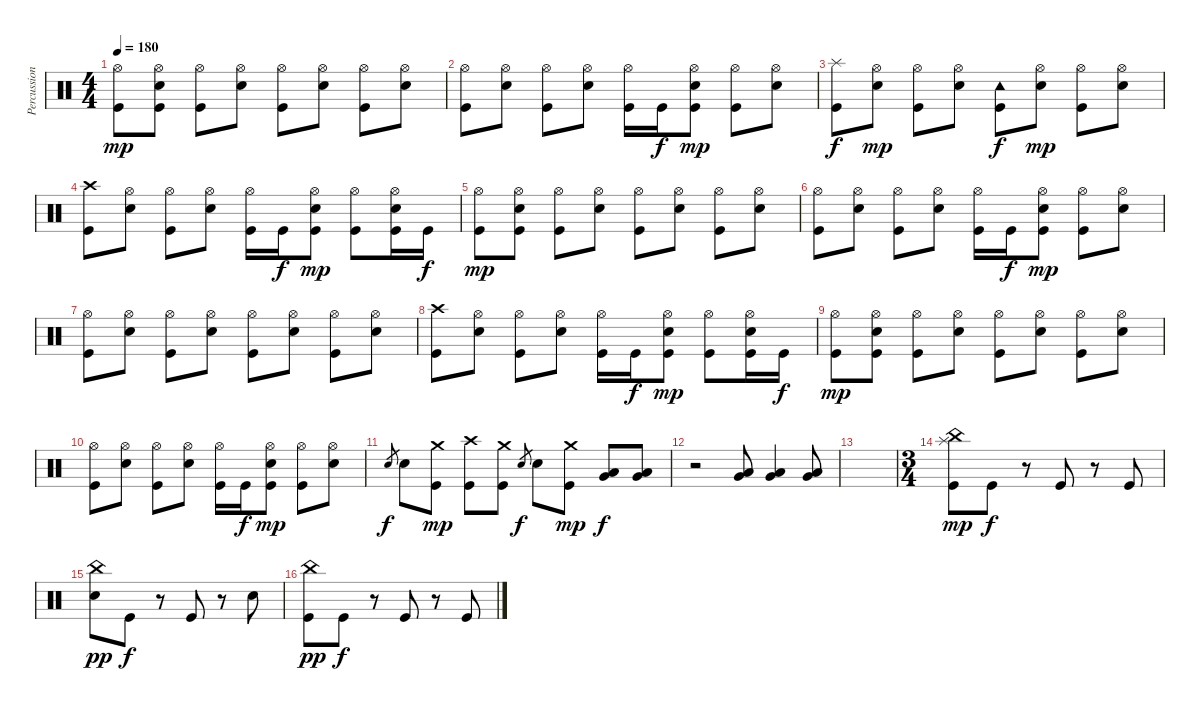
\track ("Percussion" "Percussion") {instrument percussion}
\staff {score}
\articulation defaults
\ts (4 4)
\tempo 180
\clef neutral
\ks c
("Hi-Hat (open)" "Kick (hit)").8{dy mp} ("Hi-Hat (open)" "Electric Snare (hit)" "Kick (hit)").8 ("Hi-Hat (open)" "Kick (hit)").8 ("Hi-Hat (open)" "Electric Snare (hit)").8 ("Hi-Hat (open)" "Kick (hit)").8 ("Hi-Hat (open)" "Electric Snare (hit)").8 ("Hi-Hat (open)" "Kick (hit)").8 ("Hi-Hat (open)" "Electric Snare (hit)").8 |
("Hi-Hat (open)" "Kick (hit)").8 ("Hi-Hat (open)" "Electric Snare (hit)").8 ("Hi-Hat (open)" "Kick (hit)").8 ("Hi-Hat (open)" "Electric Snare (hit)").8 ("Hi-Hat (open)" "Kick (hit)").16 "Kick (hit)".16{dy f} ("Hi-Hat (open)" "Electric Snare (hit)" "Kick (hit)").8{dy mp} ("Hi-Hat (open)" "Kick (hit)").8 ("Hi-Hat (open)" "Electric Snare (hit)").8 |
("Splash (hit)" "Kick (hit)").8{dy f} ("Hi-Hat (open)" "Electric Snare (hit)").8{dy mp} ("Hi-Hat (open)" "Kick (hit)").8 ("Hi-Hat (open)" "Electric Snare (hit)").8 ("Tambourine (hit)" "Kick (hit)").8{dy f} ("Hi-Hat (open)" "Electric Snare (hit)").8{dy mp} ("Hi-Hat (open)" "Kick (hit)").8 ("Hi-Hat (open)" "Electric Snare (hit)").8 |
("Crash high (hit)" "Kick (hit)").8 ("Hi-Hat (open)" "Electric Snare (hit)").8 ("Hi-Hat (open)" "Kick (hit)").8 ("Hi-Hat (open)" "Electric Snare (hit)").8 ("Hi-Hat (open)" "Kick (hit)").16 "Kick (hit)".16{dy f} ("Hi-Hat (open)" "Electric Snare (hit)" "Kick (hit)").8{dy mp} ("Hi-Hat (open)" "Kick (hit)").8 ("Hi-Hat (open)" "Electric Snare (hit)" "Kick (hit)").16 "Kick (hit)".16{dy f} |
("Hi-Hat (open)" "Kick (hit)").8{dy mp} ("Hi-Hat (open)" "Electric Snare (hit)" "Kick (hit)").8 ("Hi-Hat (open)" "Kick (hit)").8 ("Hi-Hat (open)" "Electric Snare (hit)").8 ("Hi-Hat (open)" "Kick (hit)").8 ("Hi-Hat (open)" "Electric Snare (hit)").8 ("Hi-Hat (open)" "Kick (hit)").8 ("Hi-Hat (open)" "Electric Snare (hit)").8 |
("Hi-Hat (open)" "Kick (hit)").8 ("Hi-Hat (open)" "Electric Snare (hit)").8 ("Hi-Hat (open)" "Kick (hit)").8 ("Hi-Hat (open)" "Electric Snare (hit)").8 ("Hi-Hat (open)" "Kick (hit)").16 "Kick (hit)".16{dy f} ("Hi-Hat (open)" "Electric Snare (hit)" "Kick (hit)").8{dy mp} ("Hi-Hat (open)" "Kick (hit)").8 ("Hi-Hat (open)" "Electric Snare (hit)").8 |
("Hi-Hat (open)" "Kick (hit)").8 ("Hi-Hat (open)" "Electric Snare (hit)").8 ("Hi-Hat (open)" "Kick (hit)").8 ("Hi-Hat (open)" "Electric Snare (hit)").8 ("Hi-Hat (open)" "Kick (hit)").8 ("Hi-Hat (open)" "Electric Snare (hit)").8 ("Hi-Hat (open)" "Kick (hit)").8 ("Hi-Hat (open)" "Electric Snare (hit)").8 |
("Crash high (hit)" "Kick (hit)").8 ("Hi-Hat (open)" "Electric Snare (hit)").8 ("Hi-Hat (open)" "Kick (hit)").8 ("Hi-Hat (open)" "Electric Snare (hit)").8 ("Hi-Hat (open)" "Kick (hit)").16 "Kick (hit)".16{dy f} ("Hi-Hat (open)" "Electric Snare (hit)" "Kick (hit)").8{dy mp} ("Hi-Hat (open)" "Kick (hit)").8 ("Hi-Hat (open)" "Electric Snare (hit)" "Kick (hit)").16 "Kick (hit)".16{dy f} |
("Hi-Hat (open)" "Kick (hit)").8{dy mp} ("Hi-Hat (open)" "Electric Snare (hit)" "Kick (hit)").8 ("Hi-Hat (open)" "Kick (hit)").8 ("Hi-Hat (open)" "Electric Snare (hit)").8 ("Hi-Hat (open)" "Kick (hit)").8 ("Hi-Hat (open)" "Electric Snare (hit)").8 ("Hi-Hat (open)" "Kick (hit)").8 ("Hi-Hat (open)" "Electric Snare (hit)").8 |
("Hi-Hat (open)" "Kick (hit)").8 ("Hi-Hat (open)" "Electric Snare (hit)").8 ("Hi-Hat (open)" "Kick (hit)").8 ("Hi-Hat (open)" "Electric Snare (hit)").8 ("Hi-Hat (open)" "Kick (hit)").16 "Kick (hit)".16{dy f} ("Hi-Hat (open)" "Electric Snare (hit)" "Kick (hit)").8{dy mp} ("Hi-Hat (open)" "Kick (hit)").8 ("Hi-Hat (open)" "Electric Snare (hit)").8 |
"Electric Snare (hit)".8{gr dy f} "Electric Snare (hit)".8 ("Crash medium (hit)" "Kick (hit)").8{dy mp} ("Crash high (hit)" "Kick (hit)").8 ("Crash medium (hit)" "Kick (hit)").8 "Electric Snare (hit)".8{gr dy f} "Electric Snare (hit)".8 ("Crash medium (hit)" "Kick (hit)").8{dy mp} ("Very Low Tom (hit)" "Low Floor Tom (hit)").8{dy f} ("Very Low Tom (hit)" "Low Floor Tom (hit)").8 |
r.2 ("Very Low Tom (hit)" "Low Floor Tom (hit)").8 ("Very Low Tom (hit)" "Low Floor Tom (hit)").4 ("Very Low Tom (hit)" "Low Floor Tom (hit)").8 |
|
\ts (3 4)
("China (hit)" "Splash (hit)" "Kick (hit)").8{dy mp volume 9} "Kick (hit)".8{dy f} r.8 "Kick (hit)".8 r.8 "Kick (hit)".8 |
("China (hit)" "Electric Snare (hit)").8{dy pp} "Kick (hit)".8{dy f} r.8 "Kick (hit)".8 r.8 "Electric Snare (hit)".8 |
("China (hit)" "Kick (hit)").8{dy pp} "Kick (hit)".8{dy f} r.8 "Kick (hit)".8 r.8 "Kick (hit)".8
